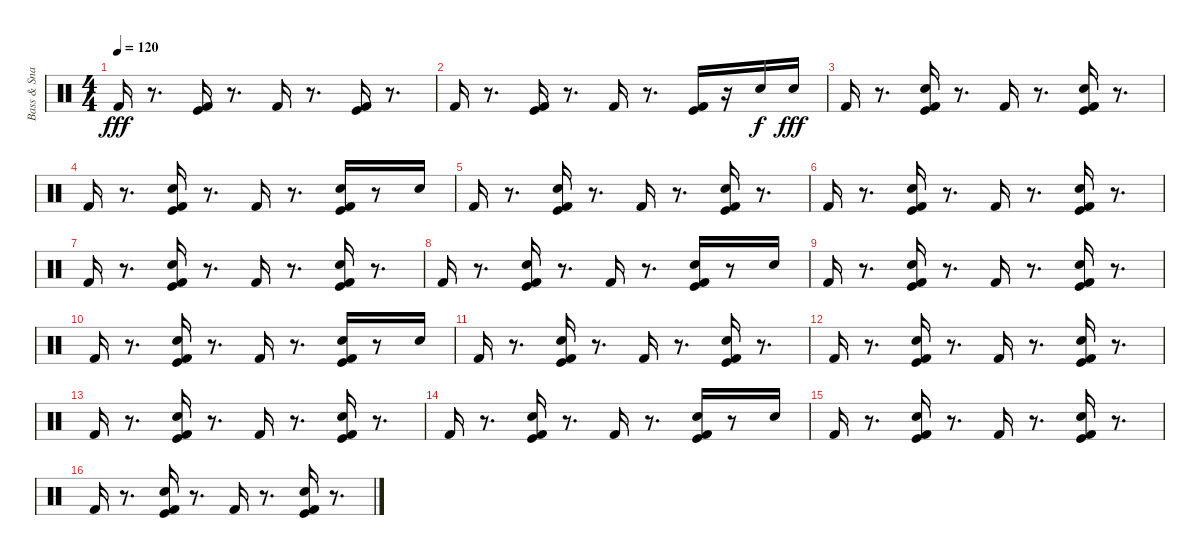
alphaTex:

\track ("Bass & Snare Drums" "Bass & Sna") {instrument percussion}
\staff {score}
\articulation defaults
\ts (4 4)
\tempo 120
\clef neutral
\ks c "Kick (hit) 2".16{dy fff}
r.8{d} ("Kick (hit)" "Kick (hit) 2").16 r.8{d} "Kick (hit) 2".16 r.8{d} ("Kick (hit)" "Kick (hit) 2").16 r.8{d} |
"Kick (hit) 2".16 r.8{d} ("Kick (hit)" "Kick (hit) 2").16 r.8{d} "Kick (hit) 2".16 r.8{d} ("Kick (hit)" "Kick (hit) 2").16 r.16 "Electric Snare (hit)".16{dy f} "Electric Snare (hit)".16{dy fff} |
"Kick (hit) 2".16 r.8{d} ("Electric Snare (hit)" "Kick (hit)" "Kick (hit) 2").16 r.8{d} "Kick (hit) 2".16 r.8{d} ("Electric Snare (hit)" "Kick (hit)" "Kick (hit) 2").16 r.8{d} |
"Kick (hit) 2".16 r.8{d} ("Electric Snare (hit)" "Kick (hit) 2" "Kick (hit)").16 r.8{d} "Kick (hit) 2".16 r.8{d} ("Electric Snare (hit)" "Kick (hit)" "Kick (hit) 2").16 r.8 "Electric Snare (hit)".16 |
"Kick (hit) 2".16 r.8{d} ("Electric Snare (hit)" "Kick (hit)" "Kick (hit) 2").16 r.8{d} "Kick (hit) 2".16 r.8{d} ("Electric Snare (hit)" "Kick (hit)" "Kick (hit) 2").16 r.8{d} |
"Kick (hit) 2".16 r.8{d} ("Electric Snare (hit)" "Kick (hit)" "Kick (hit) 2").16 r.8{d} "Kick (hit) 2".16 r.8{d} ("Electric Snare (hit)" "Kick (hit)" "Kick (hit) 2").16 r.8{d} |
"Kick (hit) 2".16 r.8{d} ("Electric Snare (hit)" "Kick (hit) 2" "Kick (hit)").16 r.8{d} "Kick (hit) 2".16 r.8{d} ("Electric Snare (hit)" "Kick (hit)" "Kick (hit) 2").16 r.8{d} |
"Kick (hit) 2".16 r.8{d} ("Electric Snare (hit)" "Kick (hit) 2" "Kick (hit)").16 r.8{d} "Kick (hit) 2".16 r.8{d} ("Electric Snare (hit)" "Kick (hit)" "Kick (hit) 2").16 r.8 "Electric Snare (hit)".16 |
"Kick (hit) 2".16 r.8{d} ("Electric Snare (hit)" "Kick (hit) 2" "Kick (hit)").16 r.8{d} "Kick (hit) 2".16 r.8{d} ("Electric Snare (hit)" "Kick (hit)" "Kick (hit) 2").16 r.8{d} |
"Kick (hit) 2".16 r.8{d} ("Electric Snare (hit)" "Kick (hit) 2" "Kick (hit)").16 r.8{d} "Kick (hit) 2".16 r.8{d} ("Electric Snare (hit)" "Kick (hit)" "Kick (hit) 2").16 r.8 "Electric Snare (hit)".16 |
"Kick (hit) 2".16 r.8{d} ("Electric Snare (hit)" "Kick (hit) 2" "Kick (hit)").16 r.8{d} "Kick (hit) 2".16 r.8{d} ("Electric Snare (hit)" "Kick (hit)" "Kick (hit) 2").16 r.8{d} |
"Kick (hit) 2".16 r.8{d} ("Electric Snare (hit)" "Kick (hit) 2" "Kick (hit)").16 r.8{d} "Kick (hit) 2".16 r.8{d} ("Electric Snare (hit)" "Kick (hit)" "Kick (hit) 2").16 r.8{d} |
"Kick (hit) 2".16 r.8{d} ("Electric Snare (hit)" "Kick (hit) 2" "Kick (hit)").16 r.8{d} "Kick (hit) 2".16 r.8{d} ("Electric Snare (hit)" "Kick (hit)" "Kick (hit) 2").16 r.8{d} |
"Kick (hit) 2".16 r.8{d} ("Electric Snare (hit)" "Kick (hit) 2" "Kick (hit)").16 r.8{d} "Kick (hit) 2".16 r.8{d} ("Electric Snare (hit)" "Kick (hit)" "Kick (hit) 2").16 r.8 "Electric Snare (hit)".16 |
"Kick (hit) 2".16 r.8{d} ("Electric Snare (hit)" "Kick (hit) 2" "Kick (hit)").16 r.8{d} "Kick (hit) 2".16 r.8{d} ("Electric Snare (hit)" "Kick (hit)" "Kick (hit) 2").16 r.8{d} |
"Kick (hit) 2".16 r.8{d} ("Electric Snare (hit)" "Kick (hit) 2" "Kick (hit)").16 r.8{d} "Kick (hit) 2".16 r.8{d} ("Electric Snare (hit)" "Kick (hit)" "Kick (hit) 2").16 r.8{d}
